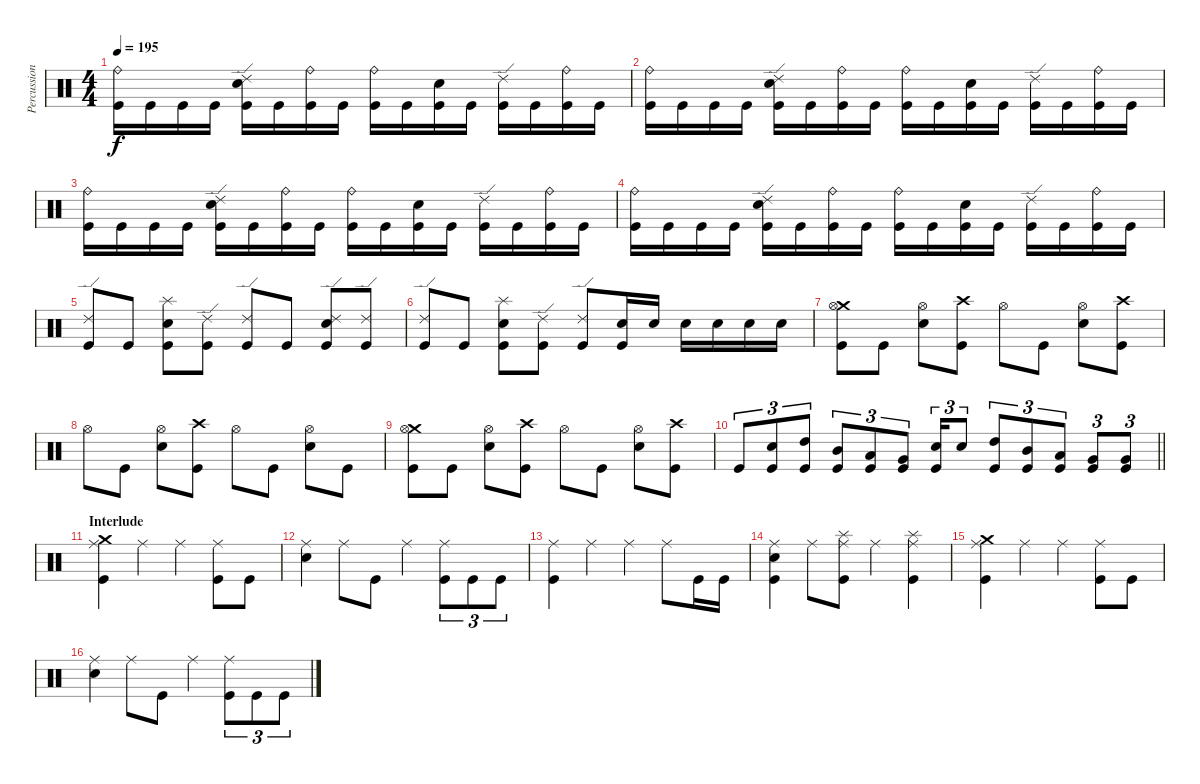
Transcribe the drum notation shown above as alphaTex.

\track ("Percussion" "Percussion") {instrument percussion}
\staff {score}
\articulation defaults
\ts (4 4)
\tempo 195
\clef neutral
\ks c
("Ride (bell)" "Kick (hit)").16{dy f} "Kick (hit)".16 "Kick (hit)".16 "Kick (hit)".16 ("Ride (edge) 2" "Electric Snare (hit)" "Kick (hit)").16 "Kick (hit)".16 ("Ride (bell)" "Kick (hit)").16 "Kick (hit)".16 ("Ride (bell)" "Kick (hit)").16 "Kick (hit)".16 ("Electric Snare (hit)" "Kick (hit)").16 "Kick (hit)".16 ("Ride (edge) 2" "Kick (hit)").16 "Kick (hit)".16 ("Ride (bell)" "Kick (hit)").16 "Kick (hit)".16 |
("Ride (bell)" "Kick (hit)").16 "Kick (hit)".16 "Kick (hit)".16 "Kick (hit)".16 ("Ride (edge) 2" "Electric Snare (hit)" "Kick (hit)").16 "Kick (hit)".16 ("Ride (bell)" "Kick (hit)").16 "Kick (hit)".16 ("Ride (bell)" "Kick (hit)").16 "Kick (hit)".16 ("Electric Snare (hit)" "Kick (hit)").16 "Kick (hit)".16 ("Ride (edge) 2" "Kick (hit)").16 "Kick (hit)".16 ("Ride (bell)" "Kick (hit)").16 "Kick (hit)".16 |
("Ride (bell)" "Kick (hit)").16 "Kick (hit)".16 "Kick (hit)".16 "Kick (hit)".16 ("Ride (edge) 2" "Electric Snare (hit)" "Kick (hit)").16 "Kick (hit)".16 ("Ride (bell)" "Kick (hit)").16 "Kick (hit)".16 ("Ride (bell)" "Kick (hit)").16 "Kick (hit)".16 ("Electric Snare (hit)" "Kick (hit)").16 "Kick (hit)".16 ("Ride (edge) 2" "Kick (hit)").16 "Kick (hit)".16 ("Ride (bell)" "Kick (hit)").16 "Kick (hit)".16 |
("Ride (bell)" "Kick (hit)").16 "Kick (hit)".16 "Kick (hit)".16 "Kick (hit)".16 ("Ride (edge) 2" "Electric Snare (hit)" "Kick (hit)").16 "Kick (hit)".16 ("Ride (bell)" "Kick (hit)").16 "Kick (hit)".16 ("Ride (bell)" "Kick (hit)").16 "Kick (hit)".16 ("Electric Snare (hit)" "Kick (hit)").16 "Kick (hit)".16 ("Ride (edge) 2" "Kick (hit)").16 "Kick (hit)".16 ("Ride (bell)" "Kick (hit)").16 "Kick (hit)".16 |
("Ride (edge) 2" "Kick (hit)").8 "Kick (hit)".8 ("Splash (hit)" "Electric Snare (hit)" "Kick (hit)").8 ("Ride (edge) 2" "Kick (hit)").8 ("Ride (edge) 2" "Kick (hit)").8 "Kick (hit)".8 ("Ride (edge) 2" "Electric Snare (hit)" "Kick (hit)").8 ("Ride (edge) 2" "Kick (hit)").8 |
("Ride (edge) 2" "Kick (hit)").8 "Kick (hit)".8 ("Splash (hit)" "Electric Snare (hit)" "Kick (hit)").8 ("Ride (edge) 2" "Kick (hit)").8 ("Ride (edge) 2" "Kick (hit)").8 ("Electric Snare (hit)" "Kick (hit)").16 "Electric Snare (hit)".16 "Electric Snare (hit)".16 "Electric Snare (hit)".16 "Electric Snare (hit)".16 "Electric Snare (hit)".16 |
("Crash medium (hit)" "Hi-Hat (open)" "Kick (hit)").8 "Kick (hit)".8 ("Hi-Hat (open)" "Electric Snare (hit)").8 ("Crash high (hit)" "Kick (hit)").8 "Hi-Hat (open)".8 "Kick (hit)".8 ("Hi-Hat (open)" "Electric Snare (hit)").8 ("Crash high (hit)" "Kick (hit)").8 |
"Hi-Hat (open)".8 "Kick (hit)".8 ("Hi-Hat (open)" "Electric Snare (hit)").8 ("Crash high (hit)" "Kick (hit)").8 "Hi-Hat (open)".8 "Kick (hit)".8 ("Hi-Hat (open)" "Electric Snare (hit)").8 "Kick (hit)".8 |
("Crash medium (hit)" "Hi-Hat (open)" "Kick (hit)").8 "Kick (hit)".8 ("Hi-Hat (open)" "Electric Snare (hit)").8 ("Crash high (hit)" "Kick (hit)").8 "Hi-Hat (open)".8 "Kick (hit)".8 ("Hi-Hat (open)" "Electric Snare (hit)").8 ("Crash high (hit)" "Kick (hit)").8 |
\barLineRight lightlight "Kick (hit)".8{tu (3 2)}
("Electric Snare (hit)" "Kick (hit)").8{tu (3 2)} ("High Tom (hit)" "Kick (hit)").8{tu (3 2)} ("Mid Tom (hit)" "Kick (hit)").8{tu (3 2)} ("Low Tom (hit)" "Kick (hit)").8{tu (3 2)} ("Very Low Tom (hit)" "Kick (hit)").8{tu (3 2)} ("Electric Snare (hit)" "Kick (hit)").16{tu (3 2)} "Electric Snare (hit)".8{tu (3 2)} ("High Tom (hit)" "Kick (hit)").8{tu (3 2)} ("Mid Tom (hit)" "Kick (hit)").8{tu (3 2)} ("Low Tom (hit)" "Kick (hit)").8{tu (3 2)} ("Very Low Tom (hit)" "Kick (hit)").8{tu (3 2)} ("Very Low Tom (hit)" "Kick (hit)").8{tu (3 2)} |
\section ("" "Interlude")
("Crash medium (hit)" "Ride (middle)" "Kick (hit)").4 "Ride (middle)".4 "Ride (middle)".4 ("Ride (middle)" "Kick (hit)").8 "Kick (hit)".8 |
("Ride (middle)" "Electric Snare (hit)").4 "Ride (middle)".8 "Kick (hit)".8 "Ride (middle)".4 ("Ride (middle)" "Kick (hit)").8{tu (3 2)} "Kick (hit)".8{tu (3 2)} "Kick (hit)".8{tu (3 2)} |
("Ride (middle)" "Kick (hit)").4 "Ride (middle)".4 "Ride (middle)".4 "Ride (middle)".8 "Kick (hit)".16 "Kick (hit)".16 |
("Ride (middle)" "Electric Snare (hit)" "Kick (hit)").4 "Ride (middle)".8 ("Ride (middle)" "Splash (hit)" "Kick (hit)").8 "Ride (middle)".4 ("Ride (middle)" "Splash (hit)" "Kick (hit)").4 |
("Crash medium (hit)" "Ride (middle)" "Kick (hit)").4 "Ride (middle)".4 "Ride (middle)".4 ("Ride (middle)" "Kick (hit)").8 "Kick (hit)".8 |
("Ride (middle)" "Electric Snare (hit)").4 "Ride (middle)".8 "Kick (hit)".8 "Ride (middle)".4 ("Ride (middle)" "Kick (hit)").8{tu (3 2)} "Kick (hit)".8{tu (3 2)} "Kick (hit)".8{tu (3 2)}
